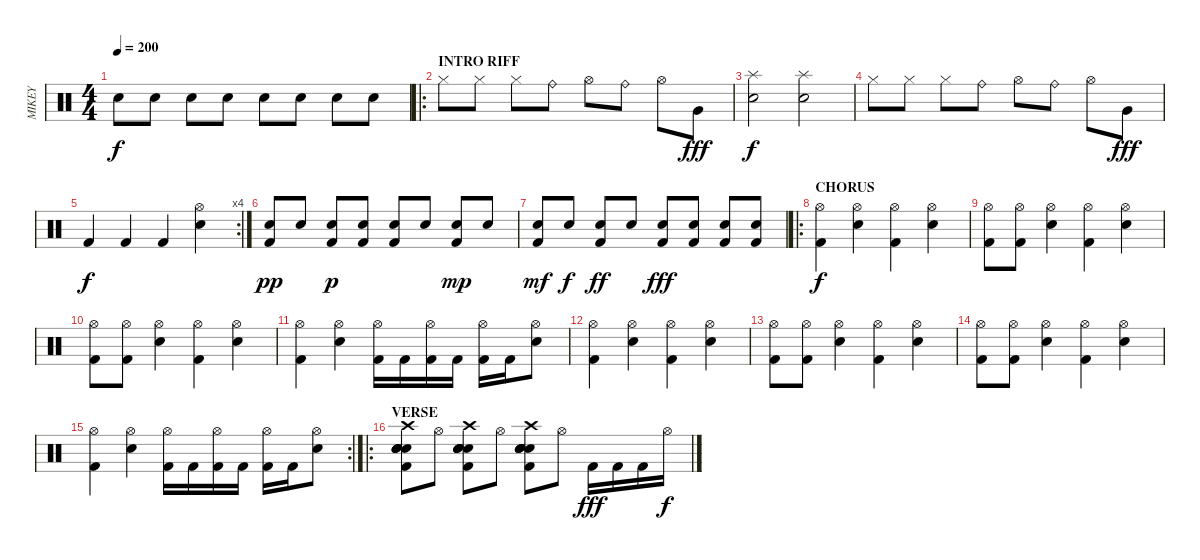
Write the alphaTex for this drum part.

\track ("MIKEY" "MIKEY") {instrument percussion}
\staff {score}
\articulation defaults
\ts (4 4)
\tempo 200
\clef neutral
\ks c "Electric Snare (hit)".8{dy f} "Electric Snare (hit)".8 "Electric Snare (hit)".8 "Snare (hit) 2".8 "Electric Snare (hit)".8 "Snare (hit) 2".8 "Electric Snare (hit)".8 "Snare (hit) 2".8
|
\ro
\section ("" "INTRO RIFF")
"Hi-Hat (closed)".8 "Hi-Hat (closed)".8 "Hi-Hat (closed)".8 "Ride (bell)".8 "Hi-Hat (open)".8 "Ride (bell)".8 "Hi-Hat (open)".8 "Very Low Tom (hit)".8{dy fff} |
("Splash (hit)" "Electric Snare (hit)").2{dy f} ("Splash (hit)" "Electric Snare (hit)").2 |
"Hi-Hat (closed)".8 "Hi-Hat (closed)".8 "Hi-Hat (closed)".8 "Ride (bell)".8 "Hi-Hat (open)".8 "Ride (bell)".8 "Hi-Hat (open)".8 "Very Low Tom (hit)".8{dy fff} |
\rc 4 "Kick (hit) 2".4{dy f} "Kick (hit) 2".4 "Kick (hit) 2".4
("Hi-Hat (open)" "Snare (hit) 2").4 |
("Kick (hit) 2" "Electric Snare (hit)").8{dy pp} "Electric Snare (hit)".8 ("Kick (hit) 2" "Electric Snare (hit)").8{dy p} ("Kick (hit) 2" "Electric Snare (hit)").8 ("Kick (hit) 2" "Electric Snare (hit)").8 "Electric Snare (hit)".8 ("Kick (hit) 2" "Electric Snare (hit)").8{dy mp} "Electric Snare (hit)".8 |
("Kick (hit) 2" "Electric Snare (hit)").8{dy mf} "Electric Snare (hit)".8{dy f} ("Kick (hit) 2" "Electric Snare (hit)").8{dy ff} "Electric Snare (hit)".8 ("Kick (hit) 2" "Electric Snare (hit)").8{dy fff} ("Kick (hit) 2" "Electric Snare (hit)").8 ("Kick (hit) 2" "Electric Snare (hit)").8 ("Kick (hit) 2" "Electric Snare (hit)").8 |
\ro
\section ("" "CHORUS")
("Hi-Hat (open)" "Kick (hit) 2").4{dy f} ("Hi-Hat (open)" "Snare (hit) 2").4 ("Hi-Hat (open)" "Kick (hit) 2").4 ("Hi-Hat (open)" "Snare (hit) 2").4 |
("Hi-Hat (open)" "Kick (hit) 2").8 ("Hi-Hat (open)" "Kick (hit) 2").8 ("Hi-Hat (open)" "Snare (hit) 2").4 ("Hi-Hat (open)" "Kick (hit) 2").4 ("Hi-Hat (open)" "Snare (hit) 2").4 |
("Hi-Hat (open)" "Kick (hit) 2").8 ("Hi-Hat (open)" "Kick (hit) 2").8 ("Hi-Hat (open)" "Snare (hit) 2").4 ("Hi-Hat (open)" "Kick (hit) 2").4 ("Hi-Hat (open)" "Snare (hit) 2").4 |
("Hi-Hat (open)" "Kick (hit) 2").4 ("Hi-Hat (open)" "Snare (hit) 2").4 ("Hi-Hat (open)" "Kick (hit) 2").16 "Kick (hit) 2".16 ("Hi-Hat (open)" "Kick (hit) 2").16 "Kick (hit) 2".16 ("Hi-Hat (open)" "Kick (hit) 2").16 "Kick (hit) 2".16 ("Hi-Hat (open)" "Snare (hit) 2").8 |
("Hi-Hat (open)" "Kick (hit) 2").4 ("Hi-Hat (open)" "Snare (hit) 2").4 ("Hi-Hat (open)" "Kick (hit) 2").4 ("Hi-Hat (open)" "Snare (hit) 2").4 |
("Hi-Hat (open)" "Kick (hit) 2").8 ("Hi-Hat (open)" "Kick (hit) 2").8 ("Hi-Hat (open)" "Snare (hit) 2").4 ("Hi-Hat (open)" "Kick (hit) 2").4 ("Hi-Hat (open)" "Snare (hit) 2").4 |
("Hi-Hat (open)" "Kick (hit) 2").8 ("Hi-Hat (open)" "Kick (hit) 2").8 ("Hi-Hat (open)" "Snare (hit) 2").4 ("Hi-Hat (open)" "Kick (hit) 2").4 ("Hi-Hat (open)" "Snare (hit) 2").4 |
\rc 2
("Hi-Hat (open)" "Kick (hit) 2").4 ("Hi-Hat (open)" "Snare (hit) 2").4 ("Hi-Hat (open)" "Kick (hit) 2").16 "Kick (hit) 2".16 ("Hi-Hat (open)" "Kick (hit) 2").16 "Kick (hit) 2".16 ("Hi-Hat (open)" "Kick (hit) 2").16 "Kick (hit) 2".16 ("Hi-Hat (open)" "Snare (hit) 2").8 |
\ro
\section ("" "VERSE")
("Electric Snare (hit)" "Snare (hit) 2" "Kick (hit) 2" "Crash high (hit)" "Snare (hit) 2" "Electric Snare (hit)").8 "Hi-Hat (open)".8 ("Electric Snare (hit)" "Snare (hit) 2" "Kick (hit) 2" "Crash high (hit)" "Snare (hit) 2" "Electric Snare (hit)").8 "Hi-Hat (open)".8 ("Electric Snare (hit)" "Snare (hit) 2" "Kick (hit) 2" "Crash high (hit)" "Snare (hit) 2" "Electric Snare (hit)").8 "Hi-Hat (open)".8 "Kick (hit) 2".16{dy fff} "Kick (hit) 2".16 "Kick (hit) 2".16 "Hi-Hat (open)".16{dy f}
